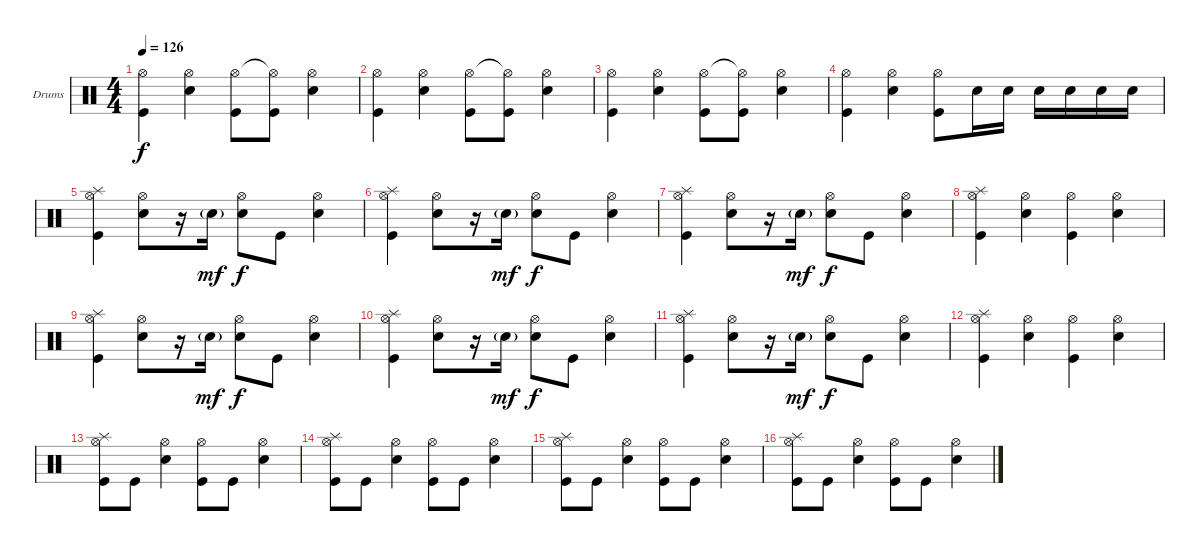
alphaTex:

\bracketExtendMode groupsimilarinstruments
\firstSystemTrackNameOrientation horizontal
\otherSystemsTrackNameOrientation horizontal
\track ("Drumkit" "Drums") {instrument percussion}
\staff {score}
\articulation defaults
\ts (4 4)
\tempo 126
\clef neutral
\ks c
("Kick (hit)" "Hi-Hat (open)").4{dy f} ("Snare (hit) 2" "Hi-Hat (open)").4 ("Kick (hit)" "Hi-Hat (open)").8 ("Kick (hit)" "Hi-Hat (open)"{t}).8 ("Snare (hit) 2" "Hi-Hat (open)").4 |
("Kick (hit)" "Hi-Hat (open)").4 ("Snare (hit) 2" "Hi-Hat (open)").4 ("Kick (hit)" "Hi-Hat (open)").8 ("Kick (hit)" "Hi-Hat (open)"{t}).8 ("Snare (hit) 2" "Hi-Hat (open)").4 |
("Kick (hit)" "Hi-Hat (open)").4 ("Snare (hit) 2" "Hi-Hat (open)").4 ("Kick (hit)" "Hi-Hat (open)").8 ("Kick (hit)" "Hi-Hat (open)"{t}).8 ("Snare (hit) 2" "Hi-Hat (open)").4 |
("Kick (hit)" "Hi-Hat (open)").4 ("Snare (hit) 2" "Hi-Hat (open)").4 ("Kick (hit)" "Hi-Hat (open)").8 "Snare (hit) 2".16 "Snare (hit) 2".16 "Snare (hit) 2".16 "Snare (hit) 2".16 "Snare (hit) 2".16 "Snare (hit) 2".16 |
("Kick (hit)" "Hi-Hat (open)" "Splash (hit)").4 ("Snare (hit) 2" "Hi-Hat (open)").8 r.16 "Snare (hit) 2"{g}.16{dy mf} ("Snare (hit) 2" "Hi-Hat (open)").8{dy f} "Kick (hit)".8 ("Snare (hit) 2" "Hi-Hat (open)").4 |
("Kick (hit)" "Hi-Hat (open)" "Splash (hit)").4 ("Snare (hit) 2" "Hi-Hat (open)").8 r.16 "Snare (hit) 2"{g}.16{dy mf} ("Snare (hit) 2" "Hi-Hat (open)").8{dy f} "Kick (hit)".8 ("Snare (hit) 2" "Hi-Hat (open)").4 |
("Kick (hit)" "Hi-Hat (open)" "Splash (hit)").4 ("Snare (hit) 2" "Hi-Hat (open)").8 r.16 "Snare (hit) 2"{g}.16{dy mf} ("Snare (hit) 2" "Hi-Hat (open)").8{dy f} "Kick (hit)".8 ("Snare (hit) 2" "Hi-Hat (open)").4 |
("Kick (hit)" "Hi-Hat (open)" "Splash (hit)").4 ("Snare (hit) 2" "Hi-Hat (open)").4 ("Kick (hit)" "Hi-Hat (open)").4 ("Snare (hit) 2" "Hi-Hat (open)").4 |
("Kick (hit)" "Hi-Hat (open)" "Splash (hit)").4 ("Snare (hit) 2" "Hi-Hat (open)").8 r.16 "Snare (hit) 2"{g}.16{dy mf} ("Snare (hit) 2" "Hi-Hat (open)").8{dy f} "Kick (hit)".8 ("Snare (hit) 2" "Hi-Hat (open)").4 |
("Kick (hit)" "Hi-Hat (open)" "Splash (hit)").4 ("Snare (hit) 2" "Hi-Hat (open)").8 r.16 "Snare (hit) 2"{g}.16{dy mf} ("Snare (hit) 2" "Hi-Hat (open)").8{dy f} "Kick (hit)".8 ("Snare (hit) 2" "Hi-Hat (open)").4 |
("Kick (hit)" "Hi-Hat (open)" "Splash (hit)").4 ("Snare (hit) 2" "Hi-Hat (open)").8 r.16 "Snare (hit) 2"{g}.16{dy mf} ("Snare (hit) 2" "Hi-Hat (open)").8{dy f} "Kick (hit)".8 ("Snare (hit) 2" "Hi-Hat (open)").4 |
("Kick (hit)" "Hi-Hat (open)" "Splash (hit)").4 ("Snare (hit) 2" "Hi-Hat (open)").4 ("Kick (hit)" "Hi-Hat (open)").4 ("Snare (hit) 2" "Hi-Hat (open)").4 |
("Kick (hit)" "Hi-Hat (open)" "Splash (hit)").8 "Kick (hit)".8 ("Snare (hit) 2" "Hi-Hat (open)").4 ("Kick (hit)" "Hi-Hat (open)").8 "Kick (hit)".8 ("Snare (hit) 2" "Hi-Hat (open)").4 |
("Kick (hit)" "Hi-Hat (open)" "Splash (hit)").8 "Kick (hit)".8 ("Snare (hit) 2" "Hi-Hat (open)").4 ("Kick (hit)" "Hi-Hat (open)").8 "Kick (hit)".8 ("Snare (hit) 2" "Hi-Hat (open)").4 |
("Kick (hit)" "Hi-Hat (open)" "Splash (hit)").8 "Kick (hit)".8 ("Snare (hit) 2" "Hi-Hat (open)").4 ("Kick (hit)" "Hi-Hat (open)").8 "Kick (hit)".8 ("Snare (hit) 2" "Hi-Hat (open)").4 |
("Kick (hit)" "Hi-Hat (open)" "Splash (hit)").8 "Kick (hit)".8 ("Snare (hit) 2" "Hi-Hat (open)").4 ("Kick (hit)" "Hi-Hat (open)").8 "Kick (hit)".8 ("Snare (hit) 2" "Hi-Hat (open)").4
